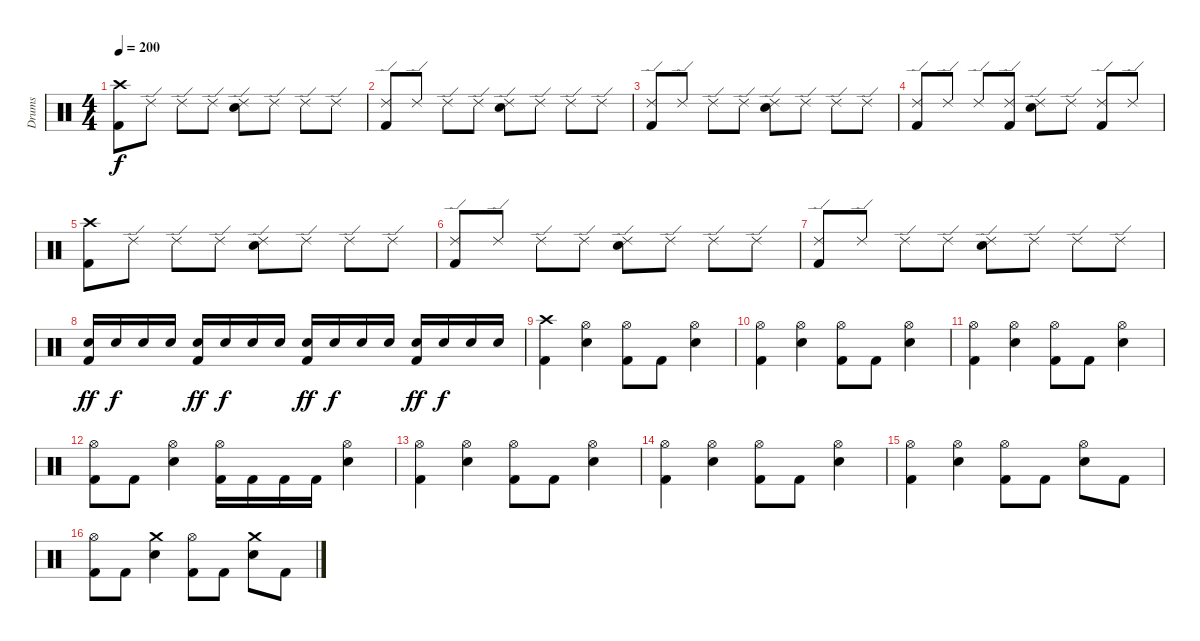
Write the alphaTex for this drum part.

\track ("Drums" "Drums") {instrument percussion}
\staff {score}
\articulation defaults
\ts (4 4)
\section ("" "")
\tempo 200
\clef neutral
\ks c
("Kick (hit) 2" "Crash high (hit)").8{dy f} "Ride (edge) 2".8 "Ride (edge) 2".8 "Ride (edge) 2".8 ("Snare (hit) 2" "Ride (edge) 2").8 "Ride (edge) 2".8 "Ride (edge) 2".8 "Ride (edge) 2".8 |
("Kick (hit) 2" "Ride (edge) 2").8 "Ride (edge) 2".8 "Ride (edge) 2".8 "Ride (edge) 2".8 ("Snare (hit) 2" "Ride (edge) 2").8 "Ride (edge) 2".8 "Ride (edge) 2".8 "Ride (edge) 2".8 |
("Kick (hit) 2" "Ride (edge) 2").8 "Ride (edge) 2".8 "Ride (edge) 2".8 "Ride (edge) 2".8 ("Snare (hit) 2" "Ride (edge) 2").8 "Ride (edge) 2".8 "Ride (edge) 2".8 "Ride (edge) 2".8 |
("Kick (hit) 2" "Ride (edge) 2").8 "Ride (edge) 2".8 "Ride (edge) 2".8 ("Kick (hit) 2" "Ride (edge) 2").8 ("Snare (hit) 2" "Ride (edge) 2").8 "Ride (edge) 2".8 ("Kick (hit) 2" "Ride (edge) 2").8 "Ride (edge) 2".8 |
("Kick (hit) 2" "Crash high (hit)").8 "Ride (edge) 2".8 "Ride (edge) 2".8 "Ride (edge) 2".8 ("Snare (hit) 2" "Ride (edge) 2").8 "Ride (edge) 2".8 "Ride (edge) 2".8 "Ride (edge) 2".8 |
("Kick (hit) 2" "Ride (edge) 2").8 "Ride (edge) 2".8 "Ride (edge) 2".8 "Ride (edge) 2".8 ("Snare (hit) 2" "Ride (edge) 2").8 "Ride (edge) 2".8 "Ride (edge) 2".8 "Ride (edge) 2".8 |
("Kick (hit) 2" "Ride (edge) 2").8 "Ride (edge) 2".8 "Ride (edge) 2".8 "Ride (edge) 2".8 ("Snare (hit) 2" "Ride (edge) 2").8 "Ride (edge) 2".8 "Ride (edge) 2".8 "Ride (edge) 2".8 |
("Kick (hit) 2" "Snare (hit) 2").16{dy ff} "Snare (hit) 2".16{dy f} "Snare (hit) 2".16 "Snare (hit) 2".16 ("Kick (hit) 2" "Snare (hit) 2").16{dy ff} "Snare (hit) 2".16{dy f} "Snare (hit) 2".16 "Snare (hit) 2".16 ("Kick (hit) 2" "Snare (hit) 2").16{dy ff} "Snare (hit) 2".16{dy f} "Snare (hit) 2".16 "Snare (hit) 2".16 ("Kick (hit) 2" "Snare (hit) 2").16{dy ff} "Snare (hit) 2".16{dy f} "Snare (hit) 2".16 "Snare (hit) 2".16 |
\section ("" "")
("Kick (hit) 2" "Crash high (hit)").4 ("Snare (hit) 2" "Hi-Hat (open)").4 ("Kick (hit) 2" "Hi-Hat (open)").8 "Kick (hit) 2".8 ("Snare (hit) 2" "Hi-Hat (open)").4 |
("Kick (hit) 2" "Hi-Hat (open)").4 ("Snare (hit) 2" "Hi-Hat (open)").4 ("Kick (hit) 2" "Hi-Hat (open)").8 "Kick (hit) 2".8 ("Snare (hit) 2" "Hi-Hat (open)").4 |
("Kick (hit) 2" "Hi-Hat (open)").4 ("Snare (hit) 2" "Hi-Hat (open)").4 ("Kick (hit) 2" "Hi-Hat (open)").8 "Kick (hit) 2".8 ("Snare (hit) 2" "Hi-Hat (open)").4 |
("Kick (hit) 2" "Hi-Hat (open)").8 "Kick (hit) 2".8 ("Snare (hit) 2" "Hi-Hat (open)").4 ("Kick (hit) 2" "Hi-Hat (open)").16 "Kick (hit) 2".16 "Kick (hit) 2".16 "Kick (hit) 2".16 ("Snare (hit) 2" "Hi-Hat (open)").4 |
\section ("" "")
("Kick (hit) 2" "Hi-Hat (open)").4 ("Snare (hit) 2" "Hi-Hat (open)").4 ("Kick (hit) 2" "Hi-Hat (open)").8 "Kick (hit) 2".8 ("Snare (hit) 2" "Hi-Hat (open)").4 |
("Kick (hit) 2" "Hi-Hat (open)").4 ("Snare (hit) 2" "Hi-Hat (open)").4 ("Kick (hit) 2" "Hi-Hat (open)").8 "Kick (hit) 2".8 ("Snare (hit) 2" "Hi-Hat (open)").4 |
("Kick (hit) 2" "Hi-Hat (open)").4 ("Snare (hit) 2" "Hi-Hat (open)").4 ("Kick (hit) 2" "Hi-Hat (open)").8 "Kick (hit) 2".8 ("Snare (hit) 2" "Hi-Hat (open)").8 "Kick (hit) 2".8 |
("Kick (hit) 2" "Hi-Hat (open)").8 "Kick (hit) 2".8 ("Snare (hit) 2" "Crash medium (hit)").4 ("Kick (hit) 2" "Hi-Hat (open)").8 "Kick (hit) 2".8 ("Snare (hit) 2" "Crash medium (hit)").8 "Kick (hit) 2".8
